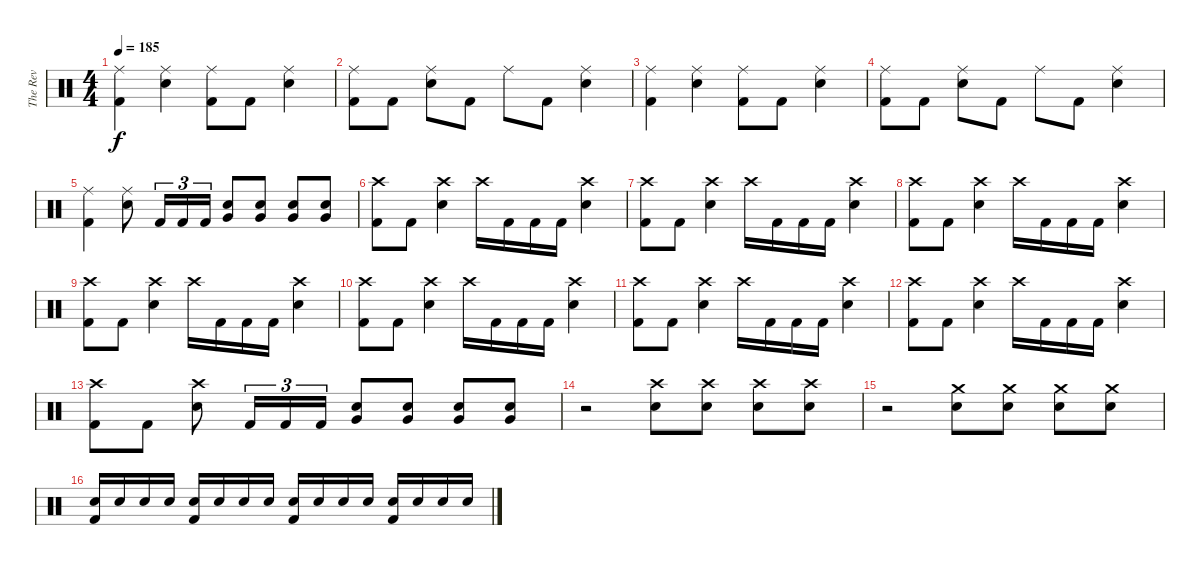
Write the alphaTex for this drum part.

\track ("The Rev" "The Rev") {instrument percussion}
\staff {score}
\articulation defaults
\ts (4 4)
\tempo 185
\clef neutral
\ks c
("Ride (middle)" "Kick (hit) 2").4{dy f} ("Ride (middle)" "Electric Snare (hit)").4 ("Ride (middle)" "Kick (hit) 2").8 "Kick (hit) 2".8 ("Ride (middle)" "Electric Snare (hit)").4 |
("Ride (middle)" "Kick (hit) 2").8 "Kick (hit) 2".8 ("Ride (middle)" "Electric Snare (hit)").8 "Kick (hit) 2".8 "Ride (middle)".8 "Kick (hit) 2".8 ("Ride (middle)" "Electric Snare (hit)").4 |
("Ride (middle)" "Kick (hit) 2").4 ("Ride (middle)" "Electric Snare (hit)").4 ("Ride (middle)" "Kick (hit) 2").8 "Kick (hit) 2".8 ("Ride (middle)" "Electric Snare (hit)").4 |
("Ride (middle)" "Kick (hit) 2").8 "Kick (hit) 2".8 ("Ride (middle)" "Electric Snare (hit)").8 "Kick (hit) 2".8 "Ride (middle)".8 "Kick (hit) 2".8 ("Ride (middle)" "Electric Snare (hit)").4 |
("Ride (middle)" "Kick (hit) 2").4 ("Ride (middle)" "Electric Snare (hit)").8 "Kick (hit) 2".16{tu (3 2)} "Kick (hit) 2".16{tu (3 2)} "Kick (hit) 2".16{tu (3 2)} ("Very Low Tom (hit)" "Electric Snare (hit)").8 ("Very Low Tom (hit)" "Electric Snare (hit)").8 ("Very Low Tom (hit)" "Electric Snare (hit)").8 ("Very Low Tom (hit)" "Electric Snare (hit)").8 |
("Crash high (hit)" "Kick (hit) 2").8 "Kick (hit) 2".8 ("Crash high (hit)" "Electric Snare (hit)").4 "Crash high (hit)".16 "Kick (hit) 2".16 "Kick (hit) 2".16 "Kick (hit) 2".16 ("Crash high (hit)" "Electric Snare (hit)").4 |
("Crash high (hit)" "Kick (hit) 2").8 "Kick (hit) 2".8 ("Crash high (hit)" "Electric Snare (hit)").4 "Crash high (hit)".16 "Kick (hit) 2".16 "Kick (hit) 2".16 "Kick (hit) 2".16 ("Crash high (hit)" "Electric Snare (hit)").4 |
("Crash high (hit)" "Kick (hit) 2").8 "Kick (hit) 2".8 ("Crash high (hit)" "Electric Snare (hit)").4 "Crash high (hit)".16 "Kick (hit) 2".16 "Kick (hit) 2".16 "Kick (hit) 2".16 ("Crash high (hit)" "Electric Snare (hit)").4 |
("Crash high (hit)" "Kick (hit) 2").8 "Kick (hit) 2".8 ("Crash high (hit)" "Electric Snare (hit)").4 "Crash high (hit)".16 "Kick (hit) 2".16 "Kick (hit) 2".16 "Kick (hit) 2".16 ("Crash high (hit)" "Electric Snare (hit)").4 |
("Crash high (hit)" "Kick (hit) 2").8 "Kick (hit) 2".8 ("Crash high (hit)" "Electric Snare (hit)").4 "Crash high (hit)".16 "Kick (hit) 2".16 "Kick (hit) 2".16 "Kick (hit) 2".16 ("Crash high (hit)" "Electric Snare (hit)").4 |
("Crash high (hit)" "Kick (hit) 2").8 "Kick (hit) 2".8 ("Crash high (hit)" "Electric Snare (hit)").4 "Crash high (hit)".16 "Kick (hit) 2".16 "Kick (hit) 2".16 "Kick (hit) 2".16 ("Crash high (hit)" "Electric Snare (hit)").4 |
("Crash high (hit)" "Kick (hit) 2").8 "Kick (hit) 2".8 ("Crash high (hit)" "Electric Snare (hit)").4 "Crash high (hit)".16 "Kick (hit) 2".16 "Kick (hit) 2".16 "Kick (hit) 2".16 ("Crash high (hit)" "Electric Snare (hit)").4 |
("Crash high (hit)" "Kick (hit) 2").8 "Kick (hit) 2".8 ("Crash high (hit)" "Electric Snare (hit)").8 "Kick (hit) 2".16{tu (3 2)} "Kick (hit) 2".16{tu (3 2)} "Kick (hit) 2".16{tu (3 2)} ("Very Low Tom (hit)" "Electric Snare (hit)").8 ("Very Low Tom (hit)" "Electric Snare (hit)").8 ("Very Low Tom (hit)" "Electric Snare (hit)").8 ("Very Low Tom (hit)" "Electric Snare (hit)").8 |
r.2 ("Crash high (hit)" "Electric Snare (hit)").8 ("Crash high (hit)" "Electric Snare (hit)").8 ("Crash high (hit)" "Electric Snare (hit)").8 ("Crash high (hit)" "Electric Snare (hit)").8 |
r.2 ("Crash medium (hit)" "Electric Snare (hit)").8 ("Crash medium (hit)" "Electric Snare (hit)").8 ("Crash medium (hit)" "Electric Snare (hit)").8 ("Crash medium (hit)" "Electric Snare (hit)").8 |
("Electric Snare (hit)" "Kick (hit) 2").16 "Electric Snare (hit)".16 "Electric Snare (hit)".16 "Electric Snare (hit)".16 ("Electric Snare (hit)" "Kick (hit) 2").16 "Electric Snare (hit)".16 "Electric Snare (hit)".16 "Electric Snare (hit)".16 ("Electric Snare (hit)" "Kick (hit) 2").16 "Electric Snare (hit)".16 "Electric Snare (hit)".16 "Electric Snare (hit)".16 ("Electric Snare (hit)" "Kick (hit) 2").16 "Electric Snare (hit)".16 "Electric Snare (hit)".16 "Electric Snare (hit)".16
